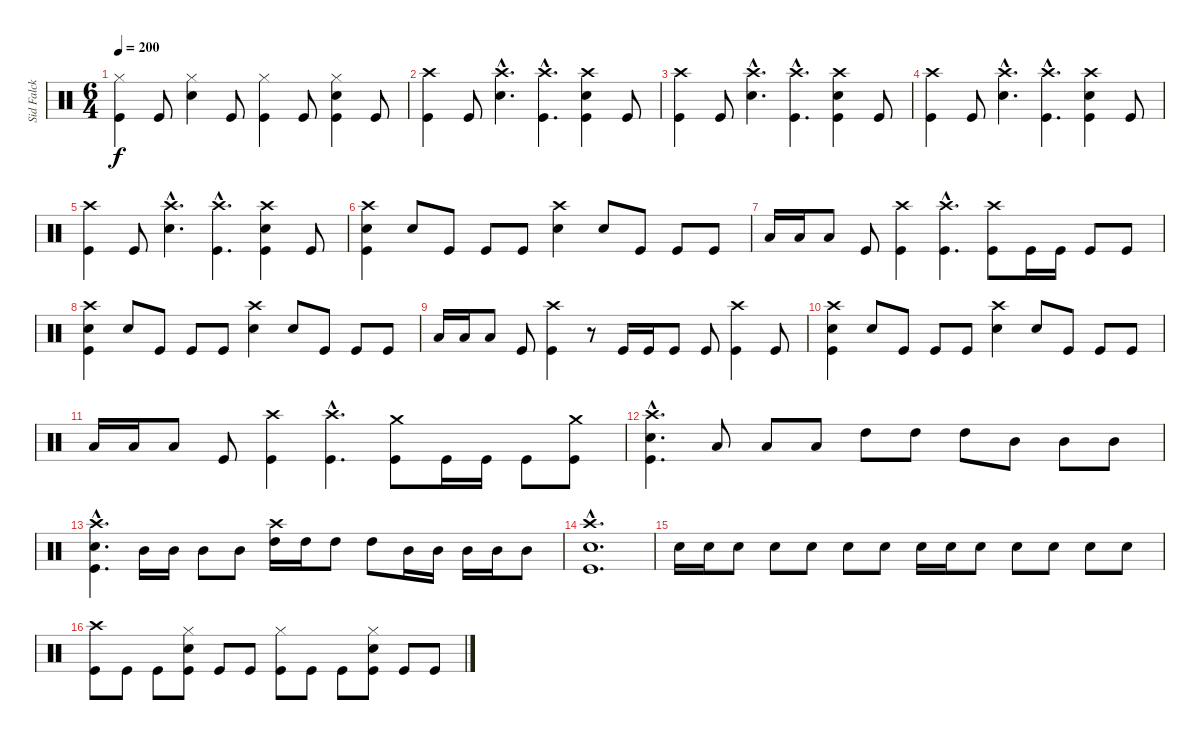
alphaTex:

\track ("Sid Falck - drums" "Sid Falck ") {instrument percussion}
\staff {score}
\articulation defaults
\ts (6 4)
\tempo 200
\clef neutral
\ks c
("Hi-Hat (closed)" "Kick (hit)").4{dy f} "Kick (hit)".8 ("Hi-Hat (closed)" "Electric Snare (hit)").4 "Kick (hit)".8 ("Hi-Hat (closed)" "Kick (hit)").4 "Kick (hit)".8 ("Hi-Hat (closed)" "Electric Snare (hit)" "Kick (hit)").4 "Kick (hit)".8 |
("Crash high (hit)" "Kick (hit)").4 "Kick (hit)".8 ("Crash high (hit)"{hac} "Electric Snare (hit)"{hac}).4{d} ("Crash high (hit)"{hac} "Kick (hit)"{hac}).4{d} ("Crash high (hit)" "Electric Snare (hit)" "Kick (hit)").4 "Kick (hit)".8 |
("Crash high (hit)" "Kick (hit)").4 "Kick (hit)".8 ("Crash high (hit)"{hac} "Electric Snare (hit)"{hac}).4{d} ("Crash high (hit)"{hac} "Kick (hit)"{hac}).4{d} ("Crash high (hit)" "Electric Snare (hit)" "Kick (hit)").4 "Kick (hit)".8 |
("Crash high (hit)" "Kick (hit)").4 "Kick (hit)".8 ("Crash high (hit)"{hac} "Electric Snare (hit)"{hac}).4{d} ("Crash high (hit)"{hac} "Kick (hit)"{hac}).4{d} ("Crash high (hit)" "Electric Snare (hit)" "Kick (hit)").4 "Kick (hit)".8 |
("Crash high (hit)" "Kick (hit)").4 "Kick (hit)".8 ("Crash high (hit)"{hac} "Electric Snare (hit)"{hac}).4{d} ("Crash high (hit)"{hac} "Kick (hit)"{hac}).4{d} ("Crash high (hit)" "Electric Snare (hit)" "Kick (hit)").4 "Kick (hit)".8 |
("Crash high (hit)" "Electric Snare (hit)" "Kick (hit)").4 "Electric Snare (hit)".8 "Kick (hit)".8 "Kick (hit)".8 "Kick (hit)".8 ("Crash high (hit)" "Electric Snare (hit)").4 "Electric Snare (hit)".8 "Kick (hit)".8 "Kick (hit)".8 "Kick (hit)".8 |
"Low Tom (hit)".16 "Low Tom (hit)".16 "Low Tom (hit)".8 "Kick (hit)".8 ("Crash high (hit)" "Kick (hit)").4 ("Crash high (hit)"{hac} "Kick (hit)"{hac}).4{d} ("Crash high (hit)" "Kick (hit)").8 "Kick (hit)".16 "Kick (hit)".16 "Kick (hit)".8 "Kick (hit)".8 |
("Crash high (hit)" "Electric Snare (hit)" "Kick (hit)").4 "Electric Snare (hit)".8 "Kick (hit)".8 "Kick (hit)".8 "Kick (hit)".8 ("Crash high (hit)" "Electric Snare (hit)").4 "Electric Snare (hit)".8 "Kick (hit)".8 "Kick (hit)".8 "Kick (hit)".8 |
"Low Tom (hit)".16 "Low Tom (hit)".16 "Low Tom (hit)".8 "Kick (hit)".8 ("Crash high (hit)" "Kick (hit)").4 r.8 "Kick (hit)".16 "Kick (hit)".16 "Kick (hit)".8 "Kick (hit)".8 ("Crash high (hit)" "Kick (hit)").4 "Kick (hit)".8 |
("Crash high (hit)" "Electric Snare (hit)" "Kick (hit)").4 "Electric Snare (hit)".8 "Kick (hit)".8 "Kick (hit)".8 "Kick (hit)".8 ("Crash high (hit)" "Electric Snare (hit)").4 "Electric Snare (hit)".8 "Kick (hit)".8 "Kick (hit)".8 "Kick (hit)".8 |
"Low Tom (hit)".16 "Low Tom (hit)".16 "Low Tom (hit)".8 "Kick (hit)".8 ("Crash high (hit)" "Kick (hit)").4 ("Crash high (hit)"{hac} "Kick (hit)"{hac}).4{d} ("Crash medium (hit)" "Kick (hit)").8 "Kick (hit)".16 "Kick (hit)".16 "Kick (hit)".8 ("Crash medium (hit)" "Kick (hit)").8 |
("Crash high (hit)"{hac} "Electric Snare (hit)"{hac} "Kick (hit)"{hac}).4{d} "Low Tom (hit)".8 "Low Tom (hit)".8 "Low Tom (hit)".8 "High Tom (hit)".8 "High Tom (hit)".8 "High Tom (hit)".8 "Mid Tom (hit)".8 "Mid Tom (hit)".8 "Mid Tom (hit)".8 |
("Crash high (hit)"{hac} "Electric Snare (hit)"{hac} "Kick (hit)"{hac}).4{d} "Mid Tom (hit)".16 "Mid Tom (hit)".16 "Mid Tom (hit)".8 "Mid Tom (hit)".8 ("Crash high (hit)" "High Tom (hit)").16 "High Tom (hit)".16 "High Tom (hit)".8 "High Tom (hit)".8 "Mid Tom (hit)".16 "Mid Tom (hit)".16 "Mid Tom (hit)".16 "Mid Tom (hit)".16 "Mid Tom (hit)".8 |
("Crash high (hit)"{hac} "Electric Snare (hit)"{hac} "Kick (hit)"{hac}).1{d} |
"Electric Snare (hit)".16 "Electric Snare (hit)".16 "Electric Snare (hit)".8 "Electric Snare (hit)".8 "Electric Snare (hit)".8 "Electric Snare (hit)".8 "Electric Snare (hit)".8 "Electric Snare (hit)".16 "Electric Snare (hit)".16 "Electric Snare (hit)".8 "Electric Snare (hit)".8 "Electric Snare (hit)".8 "Electric Snare (hit)".8 "Electric Snare (hit)".8 |
("Crash high (hit)" "Kick (hit)").8 "Kick (hit)".8 "Kick (hit)".8 ("Hi-Hat (closed)" "Electric Snare (hit)" "Kick (hit)").8 "Kick (hit)".8 "Kick (hit)".8 ("Hi-Hat (closed)" "Kick (hit)").8 "Kick (hit)".8 "Kick (hit)".8 ("Hi-Hat (closed)" "Electric Snare (hit)" "Kick (hit)").8 "Kick (hit)".8 "Kick (hit)".8
